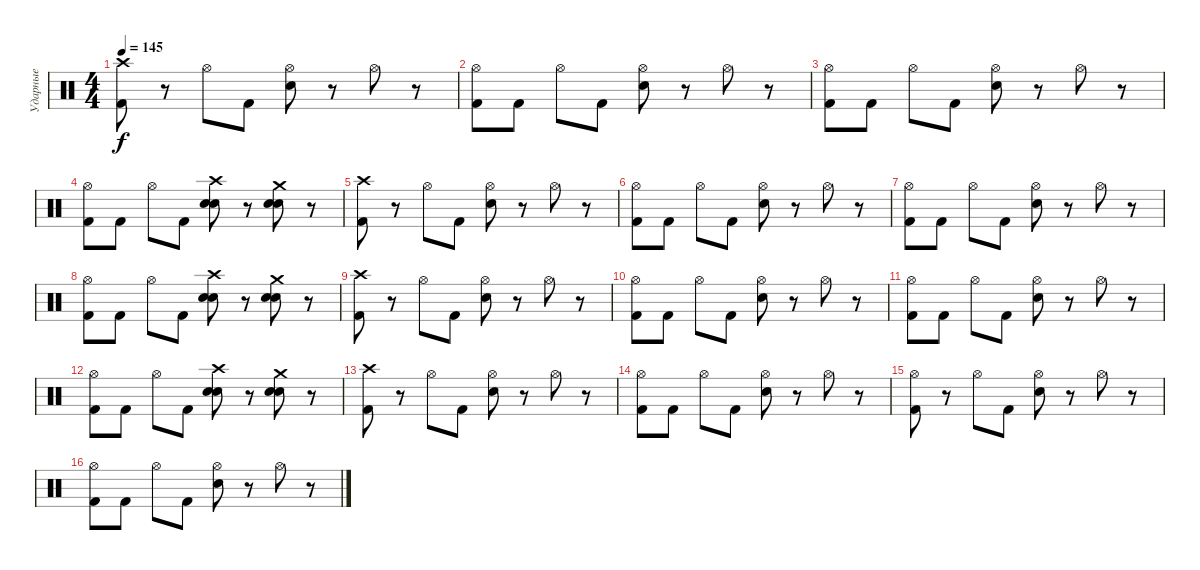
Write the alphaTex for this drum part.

\track ("Ударные" "Ударные") {instrument percussion}
\staff {score}
\articulation defaults
\ts (4 4)
\tempo 145
\clef neutral
\ks c
("Crash high (hit)" "Kick (hit) 2").8{dy f} r.8 "Hi-Hat (open)".8 "Kick (hit) 2".8 ("Hi-Hat (open)" "Snare (hit) 2").8 r.8 "Hi-Hat (open)".8 r.8 |
("Hi-Hat (open)" "Kick (hit) 2").8 "Kick (hit) 2".8 "Hi-Hat (open)".8 "Kick (hit) 2".8 ("Hi-Hat (open)" "Snare (hit) 2").8 r.8 "Hi-Hat (open)".8 r.8 |
("Hi-Hat (open)" "Kick (hit) 2").8 "Kick (hit) 2".8 "Hi-Hat (open)".8 "Kick (hit) 2".8 ("Hi-Hat (open)" "Snare (hit) 2").8 r.8 "Hi-Hat (open)".8 r.8 |
("Hi-Hat (open)" "Kick (hit) 2").8 "Kick (hit) 2".8 "Hi-Hat (open)".8 "Kick (hit) 2".8 ("Crash high (hit)" "Snare (hit) 2" "Snare (hit) 2").8 r.8 ("Crash medium (hit)" "Snare (hit) 2" "Snare (hit) 2").8 r.8 |
("Crash high (hit)" "Kick (hit) 2").8 r.8 "Hi-Hat (open)".8 "Kick (hit) 2".8 ("Hi-Hat (open)" "Snare (hit) 2").8 r.8 "Hi-Hat (open)".8 r.8 |
("Hi-Hat (open)" "Kick (hit) 2").8 "Kick (hit) 2".8 "Hi-Hat (open)".8 "Kick (hit) 2".8 ("Hi-Hat (open)" "Snare (hit) 2").8 r.8 "Hi-Hat (open)".8 r.8 |
("Hi-Hat (open)" "Kick (hit) 2").8 "Kick (hit) 2".8 "Hi-Hat (open)".8 "Kick (hit) 2".8 ("Hi-Hat (open)" "Snare (hit) 2").8 r.8 "Hi-Hat (open)".8 r.8 |
("Hi-Hat (open)" "Kick (hit) 2").8 "Kick (hit) 2".8 "Hi-Hat (open)".8 "Kick (hit) 2".8 ("Crash high (hit)" "Snare (hit) 2" "Snare (hit) 2").8 r.8 ("Crash medium (hit)" "Snare (hit) 2" "Snare (hit) 2").8 r.8 |
("Crash high (hit)" "Kick (hit) 2").8 r.8 "Hi-Hat (open)".8 "Kick (hit) 2".8 ("Hi-Hat (open)" "Snare (hit) 2").8 r.8 "Hi-Hat (open)".8 r.8 |
("Hi-Hat (open)" "Kick (hit) 2").8 "Kick (hit) 2".8 "Hi-Hat (open)".8 "Kick (hit) 2".8 ("Hi-Hat (open)" "Snare (hit) 2").8 r.8 "Hi-Hat (open)".8 r.8 |
("Hi-Hat (open)" "Kick (hit) 2").8 "Kick (hit) 2".8 "Hi-Hat (open)".8 "Kick (hit) 2".8 ("Hi-Hat (open)" "Snare (hit) 2").8 r.8 "Hi-Hat (open)".8 r.8 |
("Hi-Hat (open)" "Kick (hit) 2").8 "Kick (hit) 2".8 "Hi-Hat (open)".8 "Kick (hit) 2".8 ("Crash high (hit)" "Snare (hit) 2" "Snare (hit) 2").8 r.8 ("Crash medium (hit)" "Snare (hit) 2" "Snare (hit) 2").8 r.8 |
("Crash high (hit)" "Kick (hit) 2").8 r.8 "Hi-Hat (open)".8 "Kick (hit) 2".8 ("Hi-Hat (open)" "Snare (hit) 2").8 r.8 "Hi-Hat (open)".8 r.8 |
("Hi-Hat (open)" "Kick (hit) 2").8 "Kick (hit) 2".8 "Hi-Hat (open)".8 "Kick (hit) 2".8 ("Hi-Hat (open)" "Snare (hit) 2").8 r.8 "Hi-Hat (open)".8 r.8 |
("Hi-Hat (open)" "Kick (hit) 2").8 r.8 "Hi-Hat (open)".8 "Kick (hit) 2".8 ("Hi-Hat (open)" "Snare (hit) 2").8 r.8 "Hi-Hat (open)".8 r.8 |
("Hi-Hat (open)" "Kick (hit) 2").8 "Kick (hit) 2".8 "Hi-Hat (open)".8 "Kick (hit) 2".8 ("Hi-Hat (open)" "Snare (hit) 2").8 r.8 "Hi-Hat (open)".8 r.8
